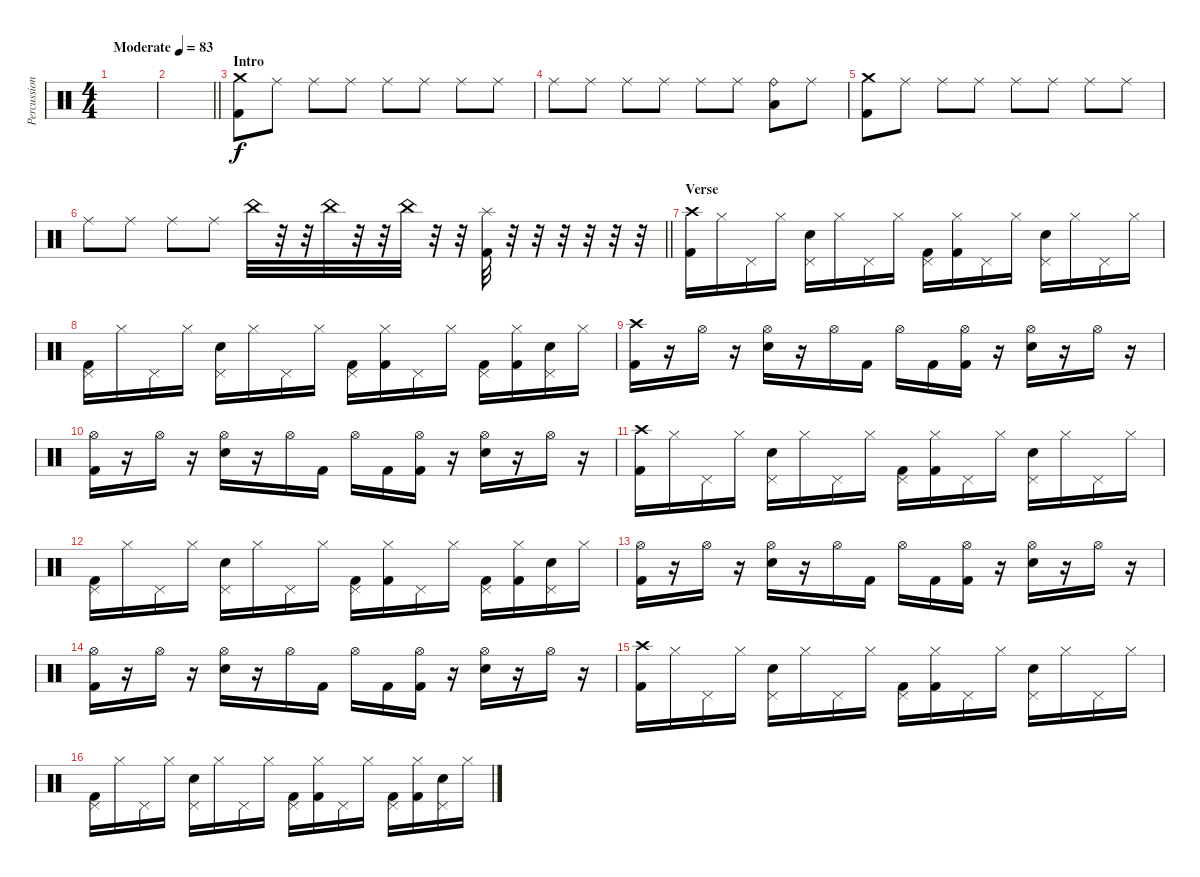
\track ("Percussion" "Percussion") {instrument percussion}
\staff {score}
\articulation defaults
\ts (4 4)
\tempo (83 "Moderate")
\clef neutral
\ks c
|
\barLineRight lightlight
|
\section ("" "Intro")
("Crash medium (hit)" "Kick (hit) 2").8 "Ride (middle)".8 "Ride (middle)".8 "Ride (middle)".8 "Ride (middle)".8 "Ride (middle)".8 "Ride (middle)".8 "Ride (middle)".8 |
"Ride (middle)".8 "Ride (middle)".8 "Ride (middle)".8 "Ride (middle)".8 "Ride (middle)".8 "Ride (middle)".8 ("Ride (bell)" "Low Tom (hit)").8 "Ride (middle)".8 |
("Crash medium (hit)" "Kick (hit) 2").8 "Ride (middle)".8 "Ride (middle)".8 "Ride (middle)".8 "Ride (middle)".8 "Ride (middle)".8 "Ride (middle)".8 "Ride (middle)".8 |
\barLineRight lightlight "Ride (middle)".8 "Ride (middle)".8 "Ride (middle)".8 "Ride (middle)".8 "China (hit)".32
r.32 r.32 "China (hit)".32 r.32 r.32 "China (hit)".32 r.32 r.32 ("Splash (hit)" "Kick (hit) 2").32 r.32 r.32 r.32 r.32 r.32 r.32 |
\section ("" "Verse")
("Crash high (hit)" "Kick (hit) 2").16 "Hi-Hat (closed)".16 "Pedal Hi-Hat (hit)".16 "Hi-Hat (closed)".16 ("Pedal Hi-Hat (hit)" "Electric Snare (hit)").16 "Hi-Hat (closed)".16 "Pedal Hi-Hat (hit)".16 "Hi-Hat (closed)".16 ("Pedal Hi-Hat (hit)" "Kick (hit) 2").16 ("Hi-Hat (closed)" "Kick (hit) 2").16 "Pedal Hi-Hat (hit)".16 "Hi-Hat (closed)".16 ("Pedal Hi-Hat (hit)" "Electric Snare (hit)").16 "Hi-Hat (closed)".16 "Pedal Hi-Hat (hit)".16 "Hi-Hat (closed)".16 |
("Pedal Hi-Hat (hit)" "Kick (hit) 2").16 "Hi-Hat (closed)".16 "Pedal Hi-Hat (hit)".16 "Hi-Hat (closed)".16 ("Pedal Hi-Hat (hit)" "Electric Snare (hit)").16 "Hi-Hat (closed)".16 "Pedal Hi-Hat (hit)".16 "Hi-Hat (closed)".16 ("Pedal Hi-Hat (hit)" "Kick (hit) 2").16 ("Hi-Hat (closed)" "Kick (hit) 2").16 "Pedal Hi-Hat (hit)".16 "Hi-Hat (closed)".16 ("Pedal Hi-Hat (hit)" "Kick (hit) 2").16 ("Hi-Hat (closed)" "Kick (hit) 2").16 ("Pedal Hi-Hat (hit)" "Electric Snare (hit)").16 "Hi-Hat (closed)".16 |
("Crash high (hit)" "Kick (hit) 2").16 r.16 "Hi-Hat (open)".16 r.16 ("Hi-Hat (open)" "Electric Snare (hit)").16 r.16 "Hi-Hat (open)".16 "Kick (hit) 2".16 "Hi-Hat (open)".16 "Kick (hit) 2".16 ("Hi-Hat (open)" "Kick (hit) 2").16 r.16 ("Hi-Hat (open)" "Electric Snare (hit)").16 r.16 "Hi-Hat (open)".16 r.16 |
("Hi-Hat (open)" "Kick (hit) 2").16 r.16 "Hi-Hat (open)".16 r.16 ("Hi-Hat (open)" "Electric Snare (hit)").16 r.16 "Hi-Hat (open)".16 "Kick (hit) 2".16 "Hi-Hat (open)".16 "Kick (hit) 2".16 ("Hi-Hat (open)" "Kick (hit) 2").16 r.16 ("Hi-Hat (open)" "Electric Snare (hit)").16 r.16 "Hi-Hat (open)".16 r.16 |
("Crash high (hit)" "Kick (hit) 2").16 "Hi-Hat (closed)".16 "Pedal Hi-Hat (hit)".16 "Hi-Hat (closed)".16 ("Pedal Hi-Hat (hit)" "Electric Snare (hit)").16 "Hi-Hat (closed)".16 "Pedal Hi-Hat (hit)".16 "Hi-Hat (closed)".16 ("Pedal Hi-Hat (hit)" "Kick (hit) 2").16 ("Hi-Hat (closed)" "Kick (hit) 2").16 "Pedal Hi-Hat (hit)".16 "Hi-Hat (closed)".16 ("Pedal Hi-Hat (hit)" "Electric Snare (hit)").16 "Hi-Hat (closed)".16 "Pedal Hi-Hat (hit)".16 "Hi-Hat (closed)".16 |
("Pedal Hi-Hat (hit)" "Kick (hit) 2").16 "Hi-Hat (closed)".16 "Pedal Hi-Hat (hit)".16 "Hi-Hat (closed)".16 ("Pedal Hi-Hat (hit)" "Electric Snare (hit)").16 "Hi-Hat (closed)".16 "Pedal Hi-Hat (hit)".16 "Hi-Hat (closed)".16 ("Pedal Hi-Hat (hit)" "Kick (hit) 2").16 ("Hi-Hat (closed)" "Kick (hit) 2").16 "Pedal Hi-Hat (hit)".16 "Hi-Hat (closed)".16 ("Pedal Hi-Hat (hit)" "Kick (hit) 2").16 ("Hi-Hat (closed)" "Kick (hit) 2").16 ("Pedal Hi-Hat (hit)" "Electric Snare (hit)").16 "Hi-Hat (closed)".16 |
("Hi-Hat (open)" "Kick (hit) 2").16 r.16 "Hi-Hat (open)".16 r.16 ("Hi-Hat (open)" "Electric Snare (hit)").16 r.16 "Hi-Hat (open)".16 "Kick (hit) 2".16 "Hi-Hat (open)".16 "Kick (hit) 2".16 ("Hi-Hat (open)" "Kick (hit) 2").16 r.16 ("Hi-Hat (open)" "Electric Snare (hit)").16 r.16 "Hi-Hat (open)".16 r.16 |
("Hi-Hat (open)" "Kick (hit) 2").16 r.16 "Hi-Hat (open)".16 r.16 ("Hi-Hat (open)" "Electric Snare (hit)").16 r.16 "Hi-Hat (open)".16 "Kick (hit) 2".16 "Hi-Hat (open)".16 "Kick (hit) 2".16 ("Hi-Hat (open)" "Kick (hit) 2").16 r.16 ("Hi-Hat (open)" "Electric Snare (hit)").16 r.16 "Hi-Hat (open)".16 r.16 |
("Crash high (hit)" "Kick (hit) 2").16 "Hi-Hat (closed)".16 "Pedal Hi-Hat (hit)".16 "Hi-Hat (closed)".16 ("Pedal Hi-Hat (hit)" "Electric Snare (hit)").16 "Hi-Hat (closed)".16 "Pedal Hi-Hat (hit)".16 "Hi-Hat (closed)".16 ("Pedal Hi-Hat (hit)" "Kick (hit) 2").16 ("Hi-Hat (closed)" "Kick (hit) 2").16 "Pedal Hi-Hat (hit)".16 "Hi-Hat (closed)".16 ("Pedal Hi-Hat (hit)" "Electric Snare (hit)").16 "Hi-Hat (closed)".16 "Pedal Hi-Hat (hit)".16 "Hi-Hat (closed)".16 |
("Pedal Hi-Hat (hit)" "Kick (hit) 2").16 "Hi-Hat (closed)".16 "Pedal Hi-Hat (hit)".16 "Hi-Hat (closed)".16 ("Pedal Hi-Hat (hit)" "Electric Snare (hit)").16 "Hi-Hat (closed)".16 "Pedal Hi-Hat (hit)".16 "Hi-Hat (closed)".16 ("Pedal Hi-Hat (hit)" "Kick (hit) 2").16 ("Hi-Hat (closed)" "Kick (hit) 2").16 "Pedal Hi-Hat (hit)".16 "Hi-Hat (closed)".16 ("Pedal Hi-Hat (hit)" "Kick (hit) 2").16 ("Hi-Hat (closed)" "Kick (hit) 2").16 ("Pedal Hi-Hat (hit)" "Electric Snare (hit)").16 "Hi-Hat (closed)".16
